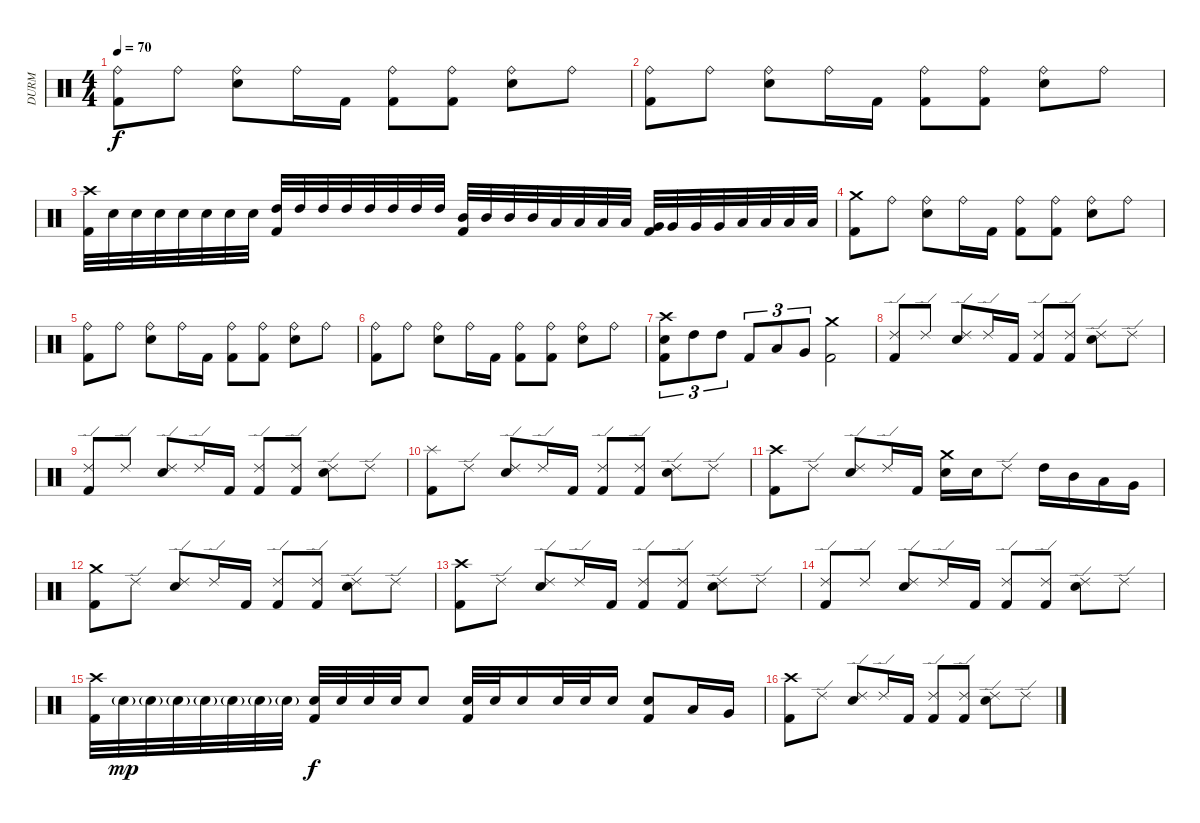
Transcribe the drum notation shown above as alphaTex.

\track ("DURM" "DURM") {instrument percussion}
\staff {score}
\articulation defaults
\ts (4 4)
\tempo 70
\clef neutral
\ks c
("Ride (bell)" "Kick (hit) 2").8{dy f} "Ride (bell)".8 ("Ride (bell)" "Snare (hit) 2").8 "Ride (bell)".16 "Kick (hit) 2".16 ("Ride (bell)" "Kick (hit) 2").8 ("Ride (bell)" "Kick (hit) 2").8 ("Ride (bell)" "Snare (hit) 2").8 "Ride (bell)".8 |
("Ride (bell)" "Kick (hit) 2").8 "Ride (bell)".8 ("Ride (bell)" "Snare (hit) 2").8 "Ride (bell)".16 "Kick (hit) 2".16 ("Ride (bell)" "Kick (hit) 2").8 ("Ride (bell)" "Kick (hit) 2").8 ("Ride (bell)" "Snare (hit) 2").8 "Ride (bell)".8 |
("Crash high (hit)" "Kick (hit) 2").32 "Snare (hit) 2".32 "Snare (hit) 2".32 "Snare (hit) 2".32 "Snare (hit) 2".32 "Snare (hit) 2".32 "Snare (hit) 2".32 "Snare (hit) 2".32 ("High Tom (hit)" "Kick (hit) 2").32 "High Tom (hit)".32 "High Tom (hit)".32 "High Tom (hit)".32 "High Tom (hit)".32 "High Tom (hit)".32 "High Tom (hit)".32 "High Tom (hit)".32 ("Mid Tom (hit)" "Kick (hit) 2").32 "Mid Tom (hit)".32 "Mid Tom (hit)".32 "Mid Tom (hit)".32 "Low Tom (hit)".32 "Low Tom (hit)".32 "Low Tom (hit)".32 "Low Tom (hit)".32 ("Very Low Tom (hit)" "Kick (hit) 2").32 "Very Low Tom (hit)".32 "Very Low Tom (hit)".32 "Very Low Tom (hit)".32 "Low Floor Tom (hit)".32 "Low Floor Tom (hit)".32 "Low Floor Tom (hit)".32 "Low Floor Tom (hit)".32 |
("Crash medium (hit)" "Kick (hit) 2").8 "Ride (bell)".8 ("Ride (bell)" "Snare (hit) 2").8 "Ride (bell)".16 "Kick (hit) 2".16 ("Ride (bell)" "Kick (hit) 2").8 ("Ride (bell)" "Kick (hit) 2").8 ("Ride (bell)" "Snare (hit) 2").8 "Ride (bell)".8 |
("Ride (bell)" "Kick (hit) 2").8 "Ride (bell)".8 ("Ride (bell)" "Snare (hit) 2").8 "Ride (bell)".16 "Kick (hit) 2".16 ("Ride (bell)" "Kick (hit) 2").8 ("Ride (bell)" "Kick (hit) 2").8 ("Ride (bell)" "Snare (hit) 2").8 "Ride (bell)".8 |
("Ride (bell)" "Kick (hit) 2").8 "Ride (bell)".8 ("Ride (bell)" "Snare (hit) 2").8 "Ride (bell)".16 "Kick (hit) 2".16 ("Ride (bell)" "Kick (hit) 2").8 ("Ride (bell)" "Kick (hit) 2").8 ("Ride (bell)" "Snare (hit) 2").8 "Ride (bell)".8 |
("Crash high (hit)" "Snare (hit) 2" "Kick (hit) 2").8{tu (3 2)} "High Tom (hit)".8{tu (3 2)} "High Tom (hit)".8{tu (3 2)} "Kick (hit) 2".8{tu (3 2)} "Low Tom (hit)".8{tu (3 2)} "Very Low Tom (hit)".8{tu (3 2)} ("Crash medium (hit)" "Kick (hit) 2").2 |
("Ride (edge) 2" "Kick (hit) 2").8 "Ride (edge) 2".8 ("Ride (edge) 2" "Snare (hit) 2").8 "Ride (edge) 2".16 "Kick (hit) 2".16 ("Ride (edge) 2" "Kick (hit) 2").8 ("Ride (edge) 2" "Kick (hit) 2").8 ("Ride (edge) 2" "Snare (hit) 2").8 "Ride (edge) 2".8 |
("Ride (edge) 2" "Kick (hit) 2").8 "Ride (edge) 2".8 ("Ride (edge) 2" "Snare (hit) 2").8 "Ride (edge) 2".16 "Kick (hit) 2".16 ("Ride (edge) 2" "Kick (hit) 2").8 ("Ride (edge) 2" "Kick (hit) 2").8 ("Ride (edge) 2" "Snare (hit) 2").8 "Ride (edge) 2".8 |
("Splash (hit)" "Kick (hit) 2").8 "Ride (edge) 2".8 ("Ride (edge) 2" "Snare (hit) 2").8 "Ride (edge) 2".16 "Kick (hit) 2".16 ("Ride (edge) 2" "Kick (hit) 2").8 ("Ride (edge) 2" "Kick (hit) 2").8 ("Ride (edge) 2" "Snare (hit) 2").8 "Ride (edge) 2".8 |
("Crash high (hit)" "Kick (hit) 2").8 "Ride (edge) 2".8 ("Ride (edge) 2" "Snare (hit) 2").8 "Ride (edge) 2".16 "Kick (hit) 2".16 ("Crash medium (hit)" "Snare (hit) 2").16 "Snare (hit) 2".16 "Ride (edge) 2".8 "High Tom (hit)".16 "Mid Tom (hit)".16 "Low Tom (hit)".16 "Very Low Tom (hit)".16 |
("Crash medium (hit)" "Kick (hit) 2").8 "Ride (edge) 2".8 ("Ride (edge) 2" "Snare (hit) 2").8 "Ride (edge) 2".16 "Kick (hit) 2".16 ("Ride (edge) 2" "Kick (hit) 2").8 ("Ride (edge) 2" "Kick (hit) 2").8 ("Ride (edge) 2" "Snare (hit) 2").8 "Ride (edge) 2".8 |
("Crash high (hit)" "Kick (hit) 2").8 "Ride (edge) 2".8 ("Ride (edge) 2" "Snare (hit) 2").8 "Ride (edge) 2".16 "Kick (hit) 2".16 ("Ride (edge) 2" "Kick (hit) 2").8 ("Ride (edge) 2" "Kick (hit) 2").8 ("Ride (edge) 2" "Snare (hit) 2").8 "Ride (edge) 2".8 |
("Ride (edge) 2" "Kick (hit) 2").8 "Ride (edge) 2".8 ("Ride (edge) 2" "Snare (hit) 2").8 "Ride (edge) 2".16 "Kick (hit) 2".16 ("Ride (edge) 2" "Kick (hit) 2").8 ("Ride (edge) 2" "Kick (hit) 2").8 ("Ride (edge) 2" "Snare (hit) 2").8 "Ride (edge) 2".8 |
("Crash high (hit)" "Kick (hit) 2").32 "Snare (hit) 2"{g}.32{dy mp} "Snare (hit) 2"{g}.32 "Snare (hit) 2"{g}.32 "Snare (hit) 2"{g}.32 "Snare (hit) 2"{g}.32 "Snare (hit) 2"{g}.32 "Snare (hit) 2"{g}.32 ("Snare (hit) 2" "Kick (hit) 2").32{dy f} "Snare (hit) 2".32 "Snare (hit) 2".32 "Snare (hit) 2".32 "Snare (hit) 2".8 ("Snare (hit) 2" "Kick (hit) 2").32 "Snare (hit) 2".32 "Snare (hit) 2".16 "Snare (hit) 2".32 "Snare (hit) 2".32 "Snare (hit) 2".16 ("Snare (hit) 2" "Kick (hit) 2").8 "Low Tom (hit)".16 "Very Low Tom (hit)".16 |
("Crash high (hit)" "Kick (hit) 2").8 "Ride (edge) 2".8 ("Ride (edge) 2" "Snare (hit) 2").8 "Ride (edge) 2".16 "Kick (hit) 2".16 ("Ride (edge) 2" "Kick (hit) 2").8 ("Ride (edge) 2" "Kick (hit) 2").8 ("Ride (edge) 2" "Snare (hit) 2").8 "Ride (edge) 2".8
